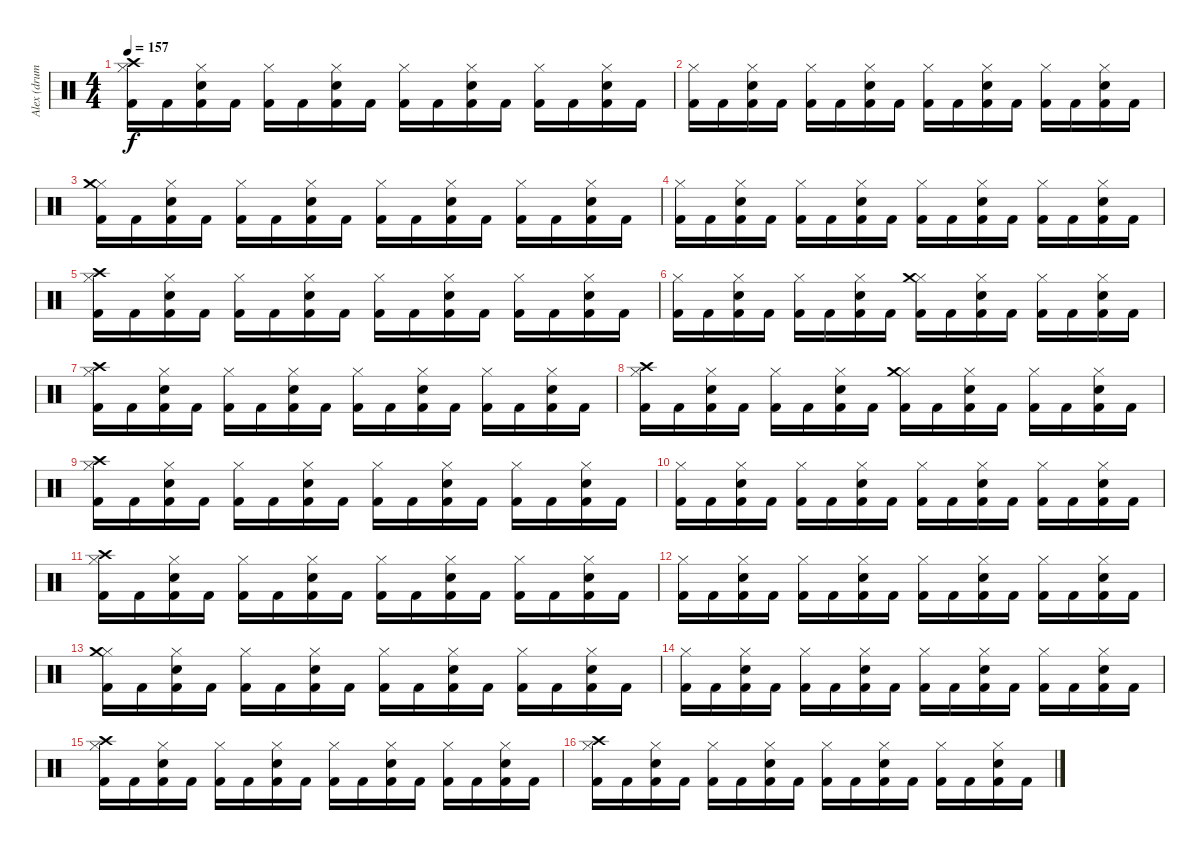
\track ("Alex (drums)" "Alex (drum") {instrument percussion}
\staff {score}
\articulation defaults
\ts (4 4)
\tempo 157
\clef neutral
\ks c
("Hi-Hat (closed)" "Kick (hit) 2" "Crash high (hit)").16{dy f} "Kick (hit) 2".16 ("Hi-Hat (closed)" "Snare (hit) 2" "Kick (hit) 2").16 "Kick (hit) 2".16 ("Hi-Hat (closed)" "Kick (hit) 2").16 "Kick (hit) 2".16 ("Hi-Hat (closed)" "Snare (hit) 2" "Kick (hit) 2").16 "Kick (hit) 2".16 ("Hi-Hat (closed)" "Kick (hit) 2").16 "Kick (hit) 2".16 ("Hi-Hat (closed)" "Snare (hit) 2" "Kick (hit) 2").16 "Kick (hit) 2".16 ("Hi-Hat (closed)" "Kick (hit) 2").16 "Kick (hit) 2".16 ("Hi-Hat (closed)" "Snare (hit) 2" "Kick (hit) 2").16 "Kick (hit) 2".16 |
("Hi-Hat (closed)" "Kick (hit) 2").16 "Kick (hit) 2".16 ("Hi-Hat (closed)" "Snare (hit) 2" "Kick (hit) 2").16 "Kick (hit) 2".16 ("Hi-Hat (closed)" "Kick (hit) 2").16 "Kick (hit) 2".16 ("Hi-Hat (closed)" "Snare (hit) 2" "Kick (hit) 2").16 "Kick (hit) 2".16 ("Hi-Hat (closed)" "Kick (hit) 2").16 "Kick (hit) 2".16 ("Hi-Hat (closed)" "Snare (hit) 2" "Kick (hit) 2").16 "Kick (hit) 2".16 ("Hi-Hat (closed)" "Kick (hit) 2").16 "Kick (hit) 2".16 ("Hi-Hat (closed)" "Snare (hit) 2" "Kick (hit) 2").16 "Kick (hit) 2".16 |
("Hi-Hat (closed)" "Kick (hit) 2" "Crash medium (hit)").16 "Kick (hit) 2".16 ("Hi-Hat (closed)" "Snare (hit) 2" "Kick (hit) 2").16 "Kick (hit) 2".16 ("Hi-Hat (closed)" "Kick (hit) 2").16 "Kick (hit) 2".16 ("Hi-Hat (closed)" "Snare (hit) 2" "Kick (hit) 2").16 "Kick (hit) 2".16 ("Hi-Hat (closed)" "Kick (hit) 2").16 "Kick (hit) 2".16 ("Hi-Hat (closed)" "Snare (hit) 2" "Kick (hit) 2").16 "Kick (hit) 2".16 ("Hi-Hat (closed)" "Kick (hit) 2").16 "Kick (hit) 2".16 ("Hi-Hat (closed)" "Snare (hit) 2" "Kick (hit) 2").16 "Kick (hit) 2".16 |
("Hi-Hat (closed)" "Kick (hit) 2").16 "Kick (hit) 2".16 ("Hi-Hat (closed)" "Snare (hit) 2" "Kick (hit) 2").16 "Kick (hit) 2".16 ("Hi-Hat (closed)" "Kick (hit) 2").16 "Kick (hit) 2".16 ("Hi-Hat (closed)" "Snare (hit) 2" "Kick (hit) 2").16 "Kick (hit) 2".16 ("Hi-Hat (closed)" "Kick (hit) 2").16 "Kick (hit) 2".16 ("Hi-Hat (closed)" "Snare (hit) 2" "Kick (hit) 2").16 "Kick (hit) 2".16 ("Hi-Hat (closed)" "Kick (hit) 2").16 "Kick (hit) 2".16 ("Hi-Hat (closed)" "Snare (hit) 2" "Kick (hit) 2").16 "Kick (hit) 2".16 |
("Hi-Hat (closed)" "Kick (hit) 2" "Crash high (hit)").16 "Kick (hit) 2".16 ("Hi-Hat (closed)" "Snare (hit) 2" "Kick (hit) 2").16 "Kick (hit) 2".16 ("Hi-Hat (closed)" "Kick (hit) 2").16 "Kick (hit) 2".16 ("Hi-Hat (closed)" "Snare (hit) 2" "Kick (hit) 2").16 "Kick (hit) 2".16 ("Hi-Hat (closed)" "Kick (hit) 2").16 "Kick (hit) 2".16 ("Hi-Hat (closed)" "Snare (hit) 2" "Kick (hit) 2").16 "Kick (hit) 2".16 ("Hi-Hat (closed)" "Kick (hit) 2").16 "Kick (hit) 2".16 ("Hi-Hat (closed)" "Snare (hit) 2" "Kick (hit) 2").16 "Kick (hit) 2".16 |
("Hi-Hat (closed)" "Kick (hit) 2").16 "Kick (hit) 2".16 ("Hi-Hat (closed)" "Snare (hit) 2" "Kick (hit) 2").16 "Kick (hit) 2".16 ("Hi-Hat (closed)" "Kick (hit) 2").16 "Kick (hit) 2".16 ("Hi-Hat (closed)" "Snare (hit) 2" "Kick (hit) 2").16 "Kick (hit) 2".16 ("Hi-Hat (closed)" "Kick (hit) 2" "Crash medium (hit)").16 "Kick (hit) 2".16 ("Hi-Hat (closed)" "Snare (hit) 2" "Kick (hit) 2").16 "Kick (hit) 2".16 ("Hi-Hat (closed)" "Kick (hit) 2").16 "Kick (hit) 2".16 ("Hi-Hat (closed)" "Snare (hit) 2" "Kick (hit) 2").16 "Kick (hit) 2".16 |
("Hi-Hat (closed)" "Kick (hit) 2" "Crash high (hit)").16 "Kick (hit) 2".16 ("Hi-Hat (closed)" "Snare (hit) 2" "Kick (hit) 2").16 "Kick (hit) 2".16 ("Hi-Hat (closed)" "Kick (hit) 2").16 "Kick (hit) 2".16 ("Hi-Hat (closed)" "Snare (hit) 2" "Kick (hit) 2").16 "Kick (hit) 2".16 ("Hi-Hat (closed)" "Kick (hit) 2").16 "Kick (hit) 2".16 ("Hi-Hat (closed)" "Snare (hit) 2" "Kick (hit) 2").16 "Kick (hit) 2".16 ("Hi-Hat (closed)" "Kick (hit) 2").16 "Kick (hit) 2".16 ("Hi-Hat (closed)" "Snare (hit) 2" "Kick (hit) 2").16 "Kick (hit) 2".16 |
("Hi-Hat (closed)" "Kick (hit) 2" "Crash high (hit)").16 "Kick (hit) 2".16 ("Hi-Hat (closed)" "Snare (hit) 2" "Kick (hit) 2").16 "Kick (hit) 2".16 ("Hi-Hat (closed)" "Kick (hit) 2").16 "Kick (hit) 2".16 ("Hi-Hat (closed)" "Snare (hit) 2" "Kick (hit) 2").16 "Kick (hit) 2".16 ("Hi-Hat (closed)" "Kick (hit) 2" "Crash medium (hit)").16 "Kick (hit) 2".16 ("Hi-Hat (closed)" "Snare (hit) 2" "Kick (hit) 2").16 "Kick (hit) 2".16 ("Hi-Hat (closed)" "Kick (hit) 2").16 "Kick (hit) 2".16 ("Hi-Hat (closed)" "Snare (hit) 2" "Kick (hit) 2").16 "Kick (hit) 2".16 |
("Hi-Hat (closed)" "Kick (hit) 2" "Crash high (hit)").16 "Kick (hit) 2".16 ("Hi-Hat (closed)" "Snare (hit) 2" "Kick (hit) 2").16 "Kick (hit) 2".16 ("Hi-Hat (closed)" "Kick (hit) 2").16 "Kick (hit) 2".16 ("Hi-Hat (closed)" "Snare (hit) 2" "Kick (hit) 2").16 "Kick (hit) 2".16 ("Hi-Hat (closed)" "Kick (hit) 2").16 "Kick (hit) 2".16 ("Hi-Hat (closed)" "Snare (hit) 2" "Kick (hit) 2").16 "Kick (hit) 2".16 ("Hi-Hat (closed)" "Kick (hit) 2").16 "Kick (hit) 2".16 ("Hi-Hat (closed)" "Snare (hit) 2" "Kick (hit) 2").16 "Kick (hit) 2".16 |
("Hi-Hat (closed)" "Kick (hit) 2").16 "Kick (hit) 2".16 ("Hi-Hat (closed)" "Snare (hit) 2" "Kick (hit) 2").16 "Kick (hit) 2".16 ("Hi-Hat (closed)" "Kick (hit) 2").16 "Kick (hit) 2".16 ("Hi-Hat (closed)" "Snare (hit) 2" "Kick (hit) 2").16 "Kick (hit) 2".16 ("Hi-Hat (closed)" "Kick (hit) 2").16 "Kick (hit) 2".16 ("Hi-Hat (closed)" "Snare (hit) 2" "Kick (hit) 2").16 "Kick (hit) 2".16 ("Hi-Hat (closed)" "Kick (hit) 2").16 "Kick (hit) 2".16 ("Hi-Hat (closed)" "Snare (hit) 2" "Kick (hit) 2").16 "Kick (hit) 2".16 |
("Hi-Hat (closed)" "Kick (hit) 2" "Crash high (hit)").16 "Kick (hit) 2".16 ("Hi-Hat (closed)" "Snare (hit) 2" "Kick (hit) 2").16 "Kick (hit) 2".16 ("Hi-Hat (closed)" "Kick (hit) 2").16 "Kick (hit) 2".16 ("Hi-Hat (closed)" "Snare (hit) 2" "Kick (hit) 2").16 "Kick (hit) 2".16 ("Hi-Hat (closed)" "Kick (hit) 2").16 "Kick (hit) 2".16 ("Hi-Hat (closed)" "Snare (hit) 2" "Kick (hit) 2").16 "Kick (hit) 2".16 ("Hi-Hat (closed)" "Kick (hit) 2").16 "Kick (hit) 2".16 ("Hi-Hat (closed)" "Snare (hit) 2" "Kick (hit) 2").16 "Kick (hit) 2".16 |
("Hi-Hat (closed)" "Kick (hit) 2").16 "Kick (hit) 2".16 ("Hi-Hat (closed)" "Snare (hit) 2" "Kick (hit) 2").16 "Kick (hit) 2".16 ("Hi-Hat (closed)" "Kick (hit) 2").16 "Kick (hit) 2".16 ("Hi-Hat (closed)" "Snare (hit) 2" "Kick (hit) 2").16 "Kick (hit) 2".16 ("Hi-Hat (closed)" "Kick (hit) 2").16 "Kick (hit) 2".16 ("Hi-Hat (closed)" "Snare (hit) 2" "Kick (hit) 2").16 "Kick (hit) 2".16 ("Hi-Hat (closed)" "Kick (hit) 2").16 "Kick (hit) 2".16 ("Hi-Hat (closed)" "Snare (hit) 2" "Kick (hit) 2").16 "Kick (hit) 2".16 |
("Hi-Hat (closed)" "Kick (hit) 2" "Crash medium (hit)").16 "Kick (hit) 2".16 ("Hi-Hat (closed)" "Snare (hit) 2" "Kick (hit) 2").16 "Kick (hit) 2".16 ("Hi-Hat (closed)" "Kick (hit) 2").16 "Kick (hit) 2".16 ("Hi-Hat (closed)" "Snare (hit) 2" "Kick (hit) 2").16 "Kick (hit) 2".16 ("Hi-Hat (closed)" "Kick (hit) 2").16 "Kick (hit) 2".16 ("Hi-Hat (closed)" "Snare (hit) 2" "Kick (hit) 2").16 "Kick (hit) 2".16 ("Hi-Hat (closed)" "Kick (hit) 2").16 "Kick (hit) 2".16 ("Hi-Hat (closed)" "Snare (hit) 2" "Kick (hit) 2").16 "Kick (hit) 2".16 |
("Hi-Hat (closed)" "Kick (hit) 2").16 "Kick (hit) 2".16 ("Hi-Hat (closed)" "Snare (hit) 2" "Kick (hit) 2").16 "Kick (hit) 2".16 ("Hi-Hat (closed)" "Kick (hit) 2").16 "Kick (hit) 2".16 ("Hi-Hat (closed)" "Snare (hit) 2" "Kick (hit) 2").16 "Kick (hit) 2".16 ("Hi-Hat (closed)" "Kick (hit) 2").16 "Kick (hit) 2".16 ("Hi-Hat (closed)" "Snare (hit) 2" "Kick (hit) 2").16 "Kick (hit) 2".16 ("Hi-Hat (closed)" "Kick (hit) 2").16 "Kick (hit) 2".16 ("Hi-Hat (closed)" "Snare (hit) 2" "Kick (hit) 2").16 "Kick (hit) 2".16 |
("Hi-Hat (closed)" "Kick (hit) 2" "Crash high (hit)").16 "Kick (hit) 2".16 ("Hi-Hat (closed)" "Snare (hit) 2" "Kick (hit) 2").16 "Kick (hit) 2".16 ("Hi-Hat (closed)" "Kick (hit) 2").16 "Kick (hit) 2".16 ("Hi-Hat (closed)" "Snare (hit) 2" "Kick (hit) 2").16 "Kick (hit) 2".16 ("Hi-Hat (closed)" "Kick (hit) 2").16 "Kick (hit) 2".16 ("Hi-Hat (closed)" "Snare (hit) 2" "Kick (hit) 2").16 "Kick (hit) 2".16 ("Hi-Hat (closed)" "Kick (hit) 2").16 "Kick (hit) 2".16 ("Hi-Hat (closed)" "Snare (hit) 2" "Kick (hit) 2").16 "Kick (hit) 2".16 |
("Hi-Hat (closed)" "Kick (hit) 2" "Crash high (hit)").16 "Kick (hit) 2".16 ("Hi-Hat (closed)" "Snare (hit) 2" "Kick (hit) 2").16 "Kick (hit) 2".16 ("Hi-Hat (closed)" "Kick (hit) 2").16 "Kick (hit) 2".16 ("Hi-Hat (closed)" "Snare (hit) 2" "Kick (hit) 2").16 "Kick (hit) 2".16 ("Hi-Hat (closed)" "Kick (hit) 2").16 "Kick (hit) 2".16 ("Hi-Hat (closed)" "Snare (hit) 2" "Kick (hit) 2").16 "Kick (hit) 2".16 ("Hi-Hat (closed)" "Kick (hit) 2").16 "Kick (hit) 2".16 ("Hi-Hat (closed)" "Snare (hit) 2" "Kick (hit) 2").16 "Kick (hit) 2".16
